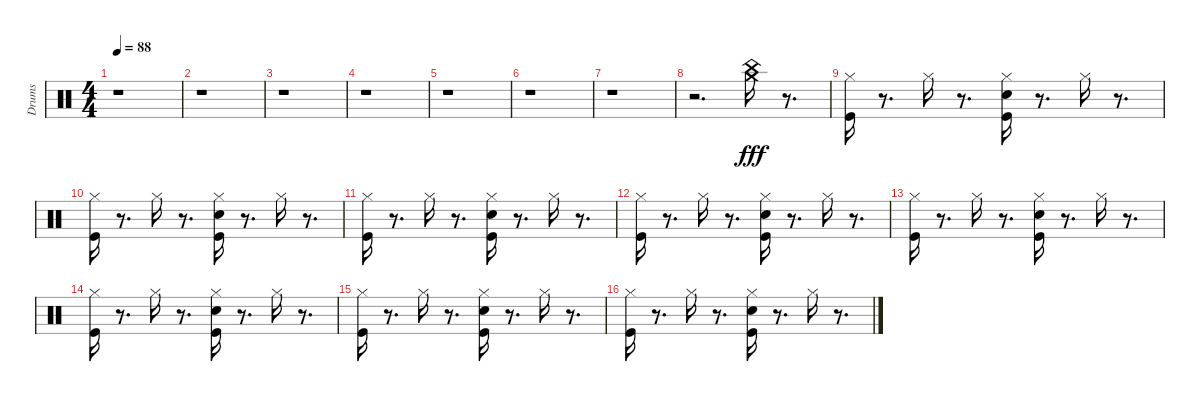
\track ("Drums" "Drums") {instrument percussion}
\staff {score}
\articulation defaults
\ts (4 4)
\tempo 88
\clef neutral
\ks c
r.1{dy fff} |
r.1 |
r.1 |
r.1 |
r.1 |
r.1 |
r.1 |
r.2{d} ("Crash medium (hit)" "China (hit)").16 r.8{d} |
("Hi-Hat (closed)" "Kick (hit)").16 r.8{d} "Hi-Hat (closed)".16 r.8{d} ("Hi-Hat (closed)" "Electric Snare (hit)" "Kick (hit)").16 r.8{d} "Hi-Hat (closed)".16 r.8{d} |
("Hi-Hat (closed)" "Kick (hit)").16 r.8{d} "Hi-Hat (closed)".16 r.8{d} ("Hi-Hat (closed)" "Electric Snare (hit)" "Kick (hit)").16 r.8{d} "Hi-Hat (closed)".16 r.8{d} |
("Hi-Hat (closed)" "Kick (hit)").16 r.8{d} "Hi-Hat (closed)".16 r.8{d} ("Hi-Hat (closed)" "Electric Snare (hit)" "Kick (hit)").16 r.8{d} "Hi-Hat (closed)".16 r.8{d} |
("Hi-Hat (closed)" "Kick (hit)").16 r.8{d} "Hi-Hat (closed)".16 r.8{d} ("Hi-Hat (closed)" "Electric Snare (hit)" "Kick (hit)").16 r.8{d} "Hi-Hat (closed)".16 r.8{d} |
("Hi-Hat (closed)" "Kick (hit)").16 r.8{d} "Hi-Hat (closed)".16 r.8{d} ("Hi-Hat (closed)" "Electric Snare (hit)" "Kick (hit)").16 r.8{d} "Hi-Hat (closed)".16 r.8{d} |
("Hi-Hat (closed)" "Kick (hit)").16 r.8{d} "Hi-Hat (closed)".16 r.8{d} ("Hi-Hat (closed)" "Electric Snare (hit)" "Kick (hit)").16 r.8{d} "Hi-Hat (closed)".16 r.8{d} |
("Hi-Hat (closed)" "Kick (hit)").16 r.8{d} "Hi-Hat (closed)".16 r.8{d} ("Hi-Hat (closed)" "Electric Snare (hit)" "Kick (hit)").16 r.8{d} "Hi-Hat (closed)".16 r.8{d} |
("Hi-Hat (closed)" "Kick (hit)").16 r.8{d} "Hi-Hat (closed)".16 r.8{d} ("Hi-Hat (closed)" "Electric Snare (hit)" "Kick (hit)").16 r.8{d} "Hi-Hat (closed)".16 r.8{d}
